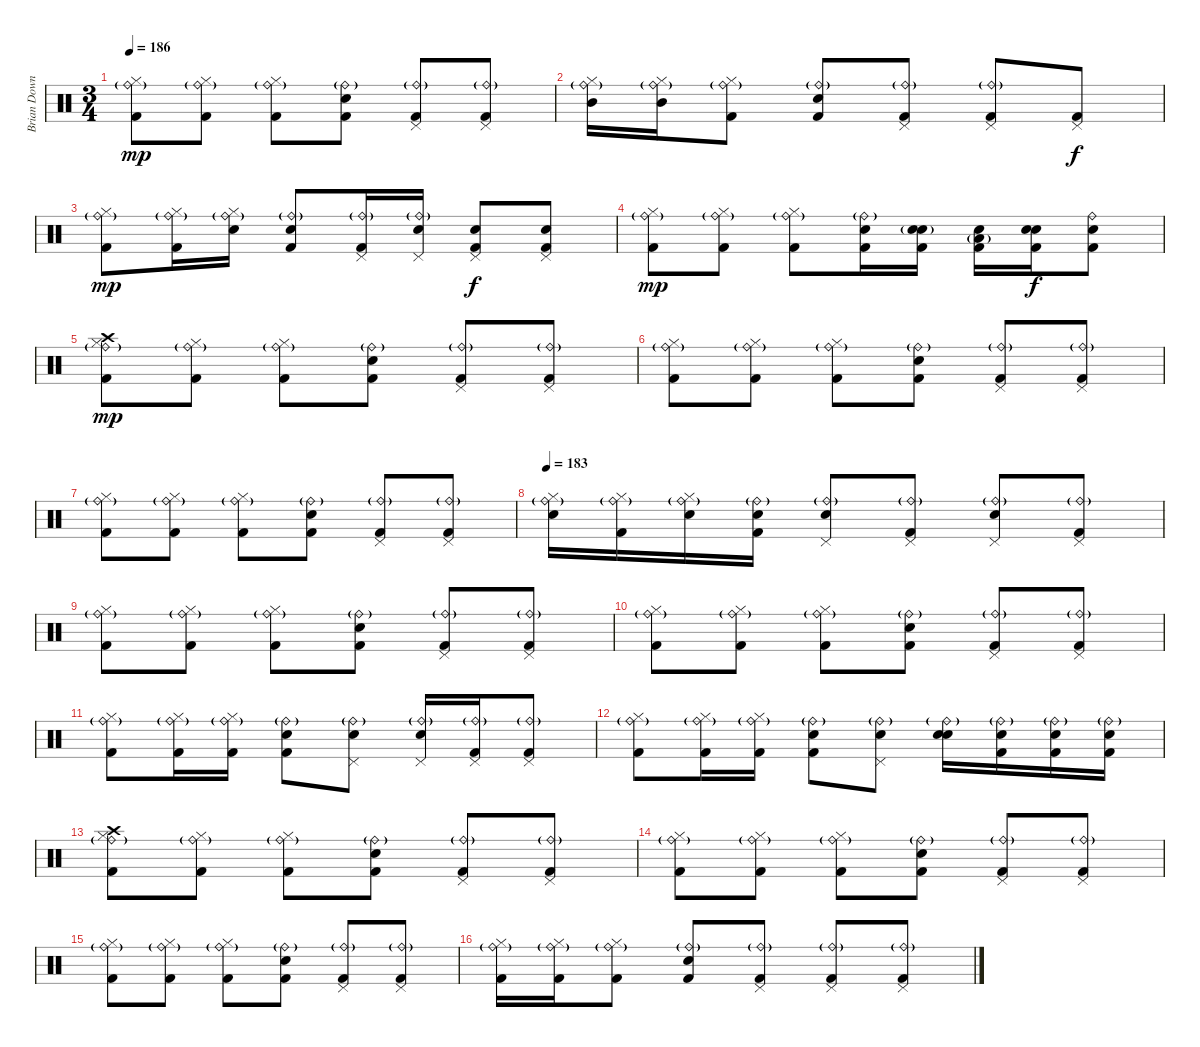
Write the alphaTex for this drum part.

\track ("Brian Downey" "Brian Down") {instrument percussion}
\staff {score}
\articulation defaults
\ts (3 4)
\tempo 186
\clef neutral
\ks c
("Ride (bell)"{g} "Hi-Hat (closed)" "Kick (hit) 2").8{dy mp} ("Ride (bell)"{g} "Hi-Hat (closed)" "Kick (hit) 2").8 ("Ride (bell)"{g} "Hi-Hat (closed)" "Kick (hit) 2").8 ("Ride (bell)"{g} "Snare (hit) 2" "Kick (hit) 2").8 ("Ride (bell)"{g} "Pedal Hi-Hat (hit)" "Kick (hit) 2").8 ("Ride (bell)"{g} "Pedal Hi-Hat (hit)" "Kick (hit) 2").8 |
("Ride (bell)"{g} "Hi-Hat (closed)" "Mid Tom (hit)").16 ("Ride (bell)"{g} "Hi-Hat (closed)" "Mid Tom (hit)").16 ("Ride (bell)"{g} "Hi-Hat (closed)" "Kick (hit) 2").8 ("Ride (bell)"{g} "Snare (hit) 2" "Kick (hit) 2").8 ("Ride (bell)"{g} "Pedal Hi-Hat (hit)" "Kick (hit) 2").8 ("Ride (bell)"{g} "Pedal Hi-Hat (hit)" "Kick (hit) 2").8 ("Pedal Hi-Hat (hit)" "Kick (hit) 2").8{dy f} |
("Ride (bell)"{g} "Hi-Hat (closed)" "Kick (hit) 2").8{dy mp} ("Ride (bell)"{g} "Hi-Hat (closed)" "Kick (hit) 2").16 ("Ride (bell)"{g} "Hi-Hat (closed)" "Electric Snare (hit)").16 ("Ride (bell)"{g} "Snare (hit) 2" "Kick (hit) 2").8 ("Ride (bell)"{g} "Pedal Hi-Hat (hit)" "Kick (hit) 2").16 ("Ride (bell)"{g} "Pedal Hi-Hat (hit)" "Electric Snare (hit)").16 ("Electric Snare (hit)" "Pedal Hi-Hat (hit)" "Kick (hit) 2").8{dy f} ("Electric Snare (hit)" "Pedal Hi-Hat (hit)" "Kick (hit) 2").8 |
("Ride (bell)"{g} "Hi-Hat (closed)" "Kick (hit) 2").8{dy mp} ("Ride (bell)"{g} "Hi-Hat (closed)" "Kick (hit) 2").8 ("Ride (bell)"{g} "Hi-Hat (closed)" "Kick (hit) 2").8 ("Ride (bell)"{g} "Snare (hit) 2" "Kick (hit) 2").16 ("Electric Snare (hit)"{g} "Snare (hit) 2" "Kick (hit) 2").16 ("Low Tom (hit)"{g} "Snare (hit) 2" "Kick (hit) 2").16 ("Snare (hit) 2" "Snare (hit) 2" "Kick (hit) 2").16{dy f} ("Ride (bell)" "Electric Snare (hit)" "Kick (hit) 2").8 |
("Crash high (hit)" "Ride (bell)"{g} "Hi-Hat (closed)" "Kick (hit) 2").8{dy mp} ("Ride (bell)"{g} "Hi-Hat (closed)" "Kick (hit) 2").8 ("Ride (bell)"{g} "Hi-Hat (closed)" "Kick (hit) 2").8 ("Ride (bell)"{g} "Snare (hit) 2" "Kick (hit) 2").8 ("Ride (bell)"{g} "Pedal Hi-Hat (hit)" "Kick (hit) 2").8 ("Ride (bell)"{g} "Pedal Hi-Hat (hit)" "Kick (hit) 2").8 |
("Ride (bell)"{g} "Hi-Hat (closed)" "Kick (hit) 2").8 ("Ride (bell)"{g} "Hi-Hat (closed)" "Kick (hit) 2").8 ("Ride (bell)"{g} "Hi-Hat (closed)" "Kick (hit) 2").8 ("Ride (bell)"{g} "Snare (hit) 2" "Kick (hit) 2").8 ("Ride (bell)"{g} "Pedal Hi-Hat (hit)" "Kick (hit) 2").8 ("Ride (bell)"{g} "Pedal Hi-Hat (hit)" "Kick (hit) 2").8 |
("Ride (bell)"{g} "Hi-Hat (closed)" "Kick (hit) 2").8 ("Ride (bell)"{g} "Hi-Hat (closed)" "Kick (hit) 2").8 ("Ride (bell)"{g} "Hi-Hat (closed)" "Kick (hit) 2").8 ("Ride (bell)"{g} "Snare (hit) 2" "Kick (hit) 2").8 ("Ride (bell)"{g} "Pedal Hi-Hat (hit)" "Kick (hit) 2").8 ("Ride (bell)"{g} "Pedal Hi-Hat (hit)" "Kick (hit) 2").8 |
\tempo 183
("Ride (bell)"{g} "Hi-Hat (closed)" "Snare (hit) 2").16 ("Ride (bell)"{g} "Hi-Hat (closed)" "Kick (hit) 2").16 ("Ride (bell)"{g} "Hi-Hat (closed)" "Snare (hit) 2").16 ("Ride (bell)"{g} "Snare (hit) 2" "Kick (hit) 2").16 ("Ride (bell)"{g} "Pedal Hi-Hat (hit)" "Snare (hit) 2").8 ("Ride (bell)"{g} "Pedal Hi-Hat (hit)" "Kick (hit) 2").8 ("Ride (bell)"{g} "Pedal Hi-Hat (hit)" "Snare (hit) 2").8 ("Ride (bell)"{g} "Pedal Hi-Hat (hit)" "Kick (hit) 2").8 |
("Ride (bell)"{g} "Hi-Hat (closed)" "Kick (hit) 2").8 ("Ride (bell)"{g} "Hi-Hat (closed)" "Kick (hit) 2").8 ("Ride (bell)"{g} "Hi-Hat (closed)" "Kick (hit) 2").8 ("Ride (bell)"{g} "Snare (hit) 2" "Kick (hit) 2").8 ("Ride (bell)"{g} "Pedal Hi-Hat (hit)" "Kick (hit) 2").8 ("Ride (bell)"{g} "Pedal Hi-Hat (hit)" "Kick (hit) 2").8 |
("Ride (bell)"{g} "Hi-Hat (closed)" "Kick (hit) 2").8 ("Ride (bell)"{g} "Hi-Hat (closed)" "Kick (hit) 2").8 ("Ride (bell)"{g} "Hi-Hat (closed)" "Kick (hit) 2").8 ("Ride (bell)"{g} "Snare (hit) 2" "Kick (hit) 2").8 ("Ride (bell)"{g} "Pedal Hi-Hat (hit)" "Kick (hit) 2").8 ("Ride (bell)"{g} "Pedal Hi-Hat (hit)" "Kick (hit) 2").8 |
("Ride (bell)"{g} "Hi-Hat (closed)" "Kick (hit) 2").8 ("Ride (bell)"{g} "Hi-Hat (closed)" "Kick (hit) 2").16 ("Ride (bell)"{g} "Hi-Hat (closed)" "Kick (hit) 2").16 ("Ride (bell)"{g} "Snare (hit) 2" "Kick (hit) 2").8 ("Ride (bell)"{g} "Pedal Hi-Hat (hit)" "Electric Snare (hit)").8 ("Ride (bell)"{g} "Pedal Hi-Hat (hit)" "Electric Snare (hit)").16 ("Ride (bell)"{g} "Pedal Hi-Hat (hit)" "Kick (hit) 2").16 ("Ride (bell)"{g} "Pedal Hi-Hat (hit)" "Kick (hit) 2").8 |
("Ride (bell)"{g} "Hi-Hat (closed)" "Kick (hit) 2").8 ("Ride (bell)"{g} "Hi-Hat (closed)" "Kick (hit) 2").16 ("Ride (bell)"{g} "Hi-Hat (closed)" "Kick (hit) 2").16 ("Ride (bell)"{g} "Snare (hit) 2" "Kick (hit) 2").8 ("Ride (bell)"{g} "Pedal Hi-Hat (hit)" "Electric Snare (hit)").8 ("Ride (bell)"{g} "Electric Snare (hit)" "Electric Snare (hit)").16 ("Ride (bell)"{g} "Electric Snare (hit)" "Kick (hit) 2").16 ("Ride (bell)"{g} "Snare (hit) 2" "Kick (hit) 2").16 ("Ride (bell)"{g} "Snare (hit) 2" "Kick (hit) 2").16 |
("Crash high (hit)" "Ride (bell)"{g} "Hi-Hat (closed)" "Kick (hit) 2").8 ("Ride (bell)"{g} "Hi-Hat (closed)" "Kick (hit) 2").8 ("Ride (bell)"{g} "Hi-Hat (closed)" "Kick (hit) 2").8 ("Ride (bell)"{g} "Snare (hit) 2" "Kick (hit) 2").8 ("Ride (bell)"{g} "Pedal Hi-Hat (hit)" "Kick (hit) 2").8 ("Ride (bell)"{g} "Pedal Hi-Hat (hit)" "Kick (hit) 2").8 |
("Ride (bell)"{g} "Hi-Hat (closed)" "Kick (hit) 2").8 ("Ride (bell)"{g} "Hi-Hat (closed)" "Kick (hit) 2").8 ("Ride (bell)"{g} "Hi-Hat (closed)" "Kick (hit) 2").8 ("Ride (bell)"{g} "Snare (hit) 2" "Kick (hit) 2").8 ("Ride (bell)"{g} "Pedal Hi-Hat (hit)" "Kick (hit) 2").8 ("Ride (bell)"{g} "Pedal Hi-Hat (hit)" "Kick (hit) 2").8 |
("Ride (bell)"{g} "Hi-Hat (closed)" "Kick (hit) 2").8 ("Ride (bell)"{g} "Hi-Hat (closed)" "Kick (hit) 2").8 ("Ride (bell)"{g} "Hi-Hat (closed)" "Kick (hit) 2").8 ("Ride (bell)"{g} "Snare (hit) 2" "Kick (hit) 2").8 ("Ride (bell)"{g} "Pedal Hi-Hat (hit)" "Kick (hit) 2").8 ("Ride (bell)"{g} "Pedal Hi-Hat (hit)" "Kick (hit) 2").8 |
("Ride (bell)"{g} "Hi-Hat (closed)" "Kick (hit) 2").16 ("Ride (bell)"{g} "Hi-Hat (closed)" "Kick (hit) 2").16 ("Ride (bell)"{g} "Hi-Hat (closed)" "Kick (hit) 2").8 ("Ride (bell)"{g} "Snare (hit) 2" "Kick (hit) 2").8 ("Ride (bell)"{g} "Pedal Hi-Hat (hit)" "Kick (hit) 2").8 ("Ride (bell)"{g} "Pedal Hi-Hat (hit)" "Kick (hit) 2").8 ("Ride (bell)"{g} "Pedal Hi-Hat (hit)" "Kick (hit) 2").8
